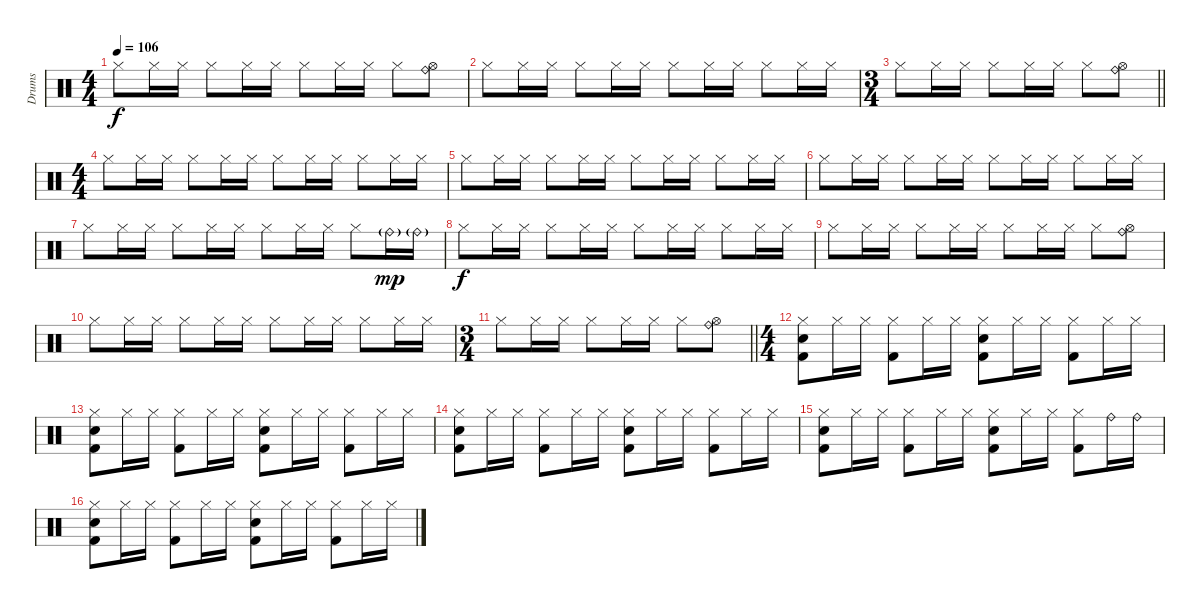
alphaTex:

\track ("Drums" "Drums") {instrument percussion}
\staff {score}
\articulation defaults
\ts (4 4)
\tempo 106
\clef neutral
\ks c "Hi-Hat (closed)".8{dy f} "Hi-Hat (closed)".16 "Hi-Hat (closed)".16 "Hi-Hat (closed)".8 "Hi-Hat (closed)".16 "Hi-Hat (closed)".16 "Hi-Hat (closed)".8 "Hi-Hat (closed)".16 "Hi-Hat (closed)".16 "Hi-Hat (closed)".8
("Ride (bell)" "Hi-Hat (open)").8 |
"Hi-Hat (closed)".8 "Hi-Hat (closed)".16 "Hi-Hat (closed)".16 "Hi-Hat (closed)".8 "Hi-Hat (closed)".16 "Hi-Hat (closed)".16 "Hi-Hat (closed)".8 "Hi-Hat (closed)".16 "Hi-Hat (closed)".16 "Hi-Hat (closed)".8 "Hi-Hat (closed)".16 "Hi-Hat (closed)".16 |
\ts (3 4)
\barLineRight lightlight "Hi-Hat (closed)".8 "Hi-Hat (closed)".16 "Hi-Hat (closed)".16 "Hi-Hat (closed)".8 "Hi-Hat (closed)".16 "Hi-Hat (closed)".16 "Hi-Hat (closed)".8
("Ride (bell)" "Hi-Hat (open)").8 |
\ts (4 4)
"Hi-Hat (closed)".8 "Hi-Hat (closed)".16 "Hi-Hat (closed)".16 "Hi-Hat (closed)".8 "Hi-Hat (closed)".16 "Hi-Hat (closed)".16 "Hi-Hat (closed)".8 "Hi-Hat (closed)".16 "Hi-Hat (closed)".16 "Hi-Hat (closed)".8 "Hi-Hat (closed)".16 "Hi-Hat (closed)".16 |
"Hi-Hat (closed)".8 "Hi-Hat (closed)".16 "Hi-Hat (closed)".16 "Hi-Hat (closed)".8 "Hi-Hat (closed)".16 "Hi-Hat (closed)".16 "Hi-Hat (closed)".8 "Hi-Hat (closed)".16 "Hi-Hat (closed)".16 "Hi-Hat (closed)".8 "Hi-Hat (closed)".16 "Hi-Hat (closed)".16 |
"Hi-Hat (closed)".8 "Hi-Hat (closed)".16 "Hi-Hat (closed)".16 "Hi-Hat (closed)".8 "Hi-Hat (closed)".16 "Hi-Hat (closed)".16 "Hi-Hat (closed)".8 "Hi-Hat (closed)".16 "Hi-Hat (closed)".16 "Hi-Hat (closed)".8 "Hi-Hat (closed)".16 "Hi-Hat (closed)".16 |
"Hi-Hat (closed)".8 "Hi-Hat (closed)".16 "Hi-Hat (closed)".16 "Hi-Hat (closed)".8 "Hi-Hat (closed)".16 "Hi-Hat (closed)".16 "Hi-Hat (closed)".8 "Hi-Hat (closed)".16 "Hi-Hat (closed)".16 "Hi-Hat (closed)".8 "Ride (bell)"{g}.16{dy mp} "Ride (bell)"{g}.16 |
"Hi-Hat (closed)".8{dy f} "Hi-Hat (closed)".16 "Hi-Hat (closed)".16 "Hi-Hat (closed)".8 "Hi-Hat (closed)".16 "Hi-Hat (closed)".16 "Hi-Hat (closed)".8 "Hi-Hat (closed)".16 "Hi-Hat (closed)".16 "Hi-Hat (closed)".8 "Hi-Hat (closed)".16 "Hi-Hat (closed)".16 |
"Hi-Hat (closed)".8 "Hi-Hat (closed)".16 "Hi-Hat (closed)".16 "Hi-Hat (closed)".8 "Hi-Hat (closed)".16 "Hi-Hat (closed)".16 "Hi-Hat (closed)".8 "Hi-Hat (closed)".16 "Hi-Hat (closed)".16 "Hi-Hat (closed)".8 ("Ride (bell)" "Hi-Hat (open)").8 |
"Hi-Hat (closed)".8 "Hi-Hat (closed)".16 "Hi-Hat (closed)".16 "Hi-Hat (closed)".8 "Hi-Hat (closed)".16 "Hi-Hat (closed)".16 "Hi-Hat (closed)".8 "Hi-Hat (closed)".16 "Hi-Hat (closed)".16 "Hi-Hat (closed)".8 "Hi-Hat (closed)".16 "Hi-Hat (closed)".16 |
\ts (3 4)
\barLineRight lightlight "Hi-Hat (closed)".8 "Hi-Hat (closed)".16 "Hi-Hat (closed)".16 "Hi-Hat (closed)".8 "Hi-Hat (closed)".16 "Hi-Hat (closed)".16 "Hi-Hat (closed)".8
("Ride (bell)" "Hi-Hat (open)").8 |
\ts (4 4)
("Hi-Hat (closed)" "Snare (hit) 2" "Kick (hit) 2").8 "Hi-Hat (closed)".16 "Hi-Hat (closed)".16 ("Hi-Hat (closed)" "Kick (hit) 2").8 "Hi-Hat (closed)".16 "Hi-Hat (closed)".16 ("Hi-Hat (closed)" "Snare (hit) 2" "Kick (hit) 2").8 "Hi-Hat (closed)".16 "Hi-Hat (closed)".16 ("Hi-Hat (closed)" "Kick (hit) 2").8 "Hi-Hat (closed)".16 "Hi-Hat (closed)".16 |
("Hi-Hat (closed)" "Snare (hit) 2" "Kick (hit) 2").8 "Hi-Hat (closed)".16 "Hi-Hat (closed)".16 ("Hi-Hat (closed)" "Kick (hit) 2").8 "Hi-Hat (closed)".16 "Hi-Hat (closed)".16 ("Hi-Hat (closed)" "Snare (hit) 2" "Kick (hit) 2").8 "Hi-Hat (closed)".16 "Hi-Hat (closed)".16 ("Hi-Hat (closed)" "Kick (hit) 2").8 "Hi-Hat (closed)".16 "Hi-Hat (closed)".16 |
("Hi-Hat (closed)" "Snare (hit) 2" "Kick (hit) 2").8 "Hi-Hat (closed)".16 "Hi-Hat (closed)".16 ("Hi-Hat (closed)" "Kick (hit) 2").8 "Hi-Hat (closed)".16 "Hi-Hat (closed)".16 ("Hi-Hat (closed)" "Snare (hit) 2" "Kick (hit) 2").8 "Hi-Hat (closed)".16 "Hi-Hat (closed)".16 ("Hi-Hat (closed)" "Kick (hit) 2").8 "Hi-Hat (closed)".16 "Hi-Hat (closed)".16 |
("Hi-Hat (closed)" "Snare (hit) 2" "Kick (hit) 2").8 "Hi-Hat (closed)".16 "Hi-Hat (closed)".16 ("Hi-Hat (closed)" "Kick (hit) 2").8 "Hi-Hat (closed)".16 "Hi-Hat (closed)".16 ("Hi-Hat (closed)" "Snare (hit) 2" "Kick (hit) 2").8 "Hi-Hat (closed)".16 "Hi-Hat (closed)".16 ("Hi-Hat (closed)" "Kick (hit) 2").8 "Ride (bell)".16 "Ride (bell)".16 |
("Hi-Hat (closed)" "Snare (hit) 2" "Kick (hit) 2").8 "Hi-Hat (closed)".16 "Hi-Hat (closed)".16 ("Hi-Hat (closed)" "Kick (hit) 2").8 "Hi-Hat (closed)".16 "Hi-Hat (closed)".16 ("Hi-Hat (closed)" "Snare (hit) 2" "Kick (hit) 2").8 "Hi-Hat (closed)".16 "Hi-Hat (closed)".16 ("Hi-Hat (closed)" "Kick (hit) 2").8 "Hi-Hat (closed)".16 "Hi-Hat (closed)".16
